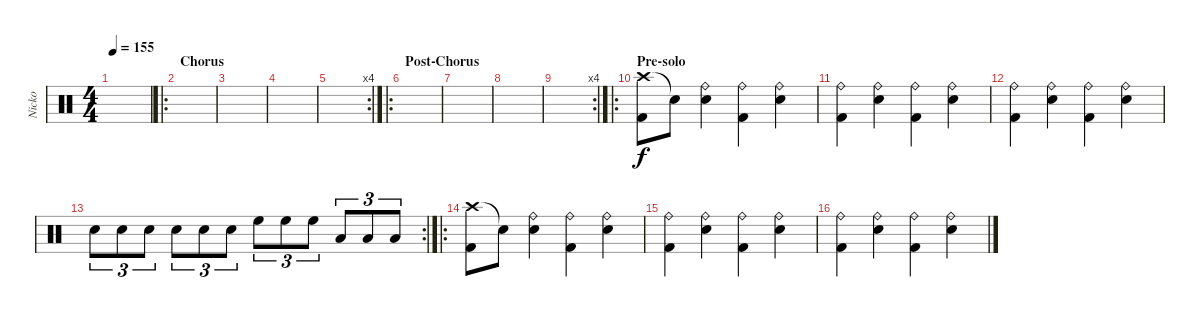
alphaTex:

\track ("Nicko" "Nicko") {instrument percussion}
\staff {score}
\articulation defaults
\ts (4 4)
\tempo 155
\clef neutral
\ks c
|
\ro
\section ("" "Chorus")
|
|
|
\rc 4
|
\ro
\section ("" "Post-Chorus")
|
|
|
\rc 4
|
\ro
\section ("" "Pre-solo")
("Crash high (hit)" "Kick (hit) 2").8 "Snare (hit)"{t}.8 ("Ride (bell)" "Snare (hit) 2").4 ("Ride (bell)" "Kick (hit) 2").4 ("Ride (bell)" "Snare (hit) 2").4 |
("Ride (bell)" "Kick (hit) 2").4 ("Ride (bell)" "Snare (hit) 2").4 ("Ride (bell)" "Kick (hit) 2").4 ("Ride (bell)" "Snare (hit) 2").4 |
("Ride (bell)" "Kick (hit) 2").4 ("Ride (bell)" "Snare (hit) 2").4 ("Ride (bell)" "Kick (hit) 2").4 ("Ride (bell)" "Snare (hit) 2").4 |
\rc 2 "Snare (hit) 2".8{tu (3 2)} "Snare (hit) 2".8{tu (3 2)} "Snare (hit) 2".8{tu (3 2)} "Snare (hit) 2".8{tu (3 2)} "Snare (hit) 2".8{tu (3 2)} "Snare (hit) 2".8{tu (3 2)} "High Floor Tom (hit)".8{tu (3 2)} "High Floor Tom (hit)".8{tu (3 2)} "High Floor Tom (hit)".8{tu (3 2)} "Low Tom (hit)".8{tu (3 2)} "Low Tom (hit)".8{tu (3 2)} "Low Tom (hit)".8{tu (3 2)}
|
\ro
("Crash high (hit)" "Kick (hit) 2").8 "Snare (hit)"{t}.8 ("Ride (bell)" "Snare (hit) 2").4 ("Ride (bell)" "Kick (hit) 2").4 ("Ride (bell)" "Snare (hit) 2").4 |
("Ride (bell)" "Kick (hit) 2").4 ("Ride (bell)" "Snare (hit) 2").4 ("Ride (bell)" "Kick (hit) 2").4 ("Ride (bell)" "Snare (hit) 2").4 |
("Ride (bell)" "Kick (hit) 2").4 ("Ride (bell)" "Snare (hit) 2").4 ("Ride (bell)" "Kick (hit) 2").4 ("Ride (bell)" "Snare (hit) 2").4
